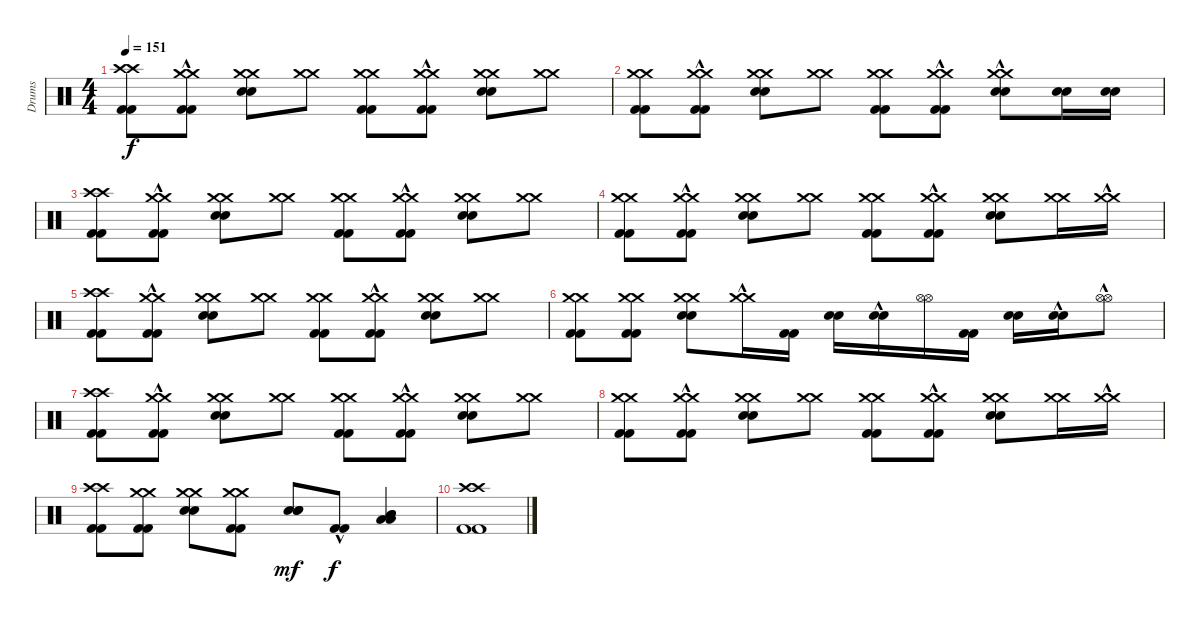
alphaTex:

\track ("Drums" "Drums") {instrument percussion}
\staff {score}
\articulation defaults
\ts (4 4)
\tempo 151
\clef neutral
\ks c
("Kick (hit) 2" "Kick (hit) 2" "Crash high (hit)" "Crash high (hit)").8{dy f} ("Kick (hit) 2"{hac} "Kick (hit) 2"{hac} "Crash medium (hit)" "Crash medium (hit)").8 ("Electric Snare (hit)" "Electric Snare (hit)" "Crash medium (hit)" "Crash medium (hit)").8 ("Crash medium (hit)" "Crash medium (hit)").8 ("Kick (hit) 2" "Kick (hit) 2" "Crash medium (hit)" "Crash medium (hit)").8 ("Kick (hit) 2"{hac} "Kick (hit) 2"{hac} "Crash medium (hit)" "Crash medium (hit)").8 ("Electric Snare (hit)" "Electric Snare (hit)" "Crash medium (hit)" "Crash medium (hit)").8 ("Crash medium (hit)" "Crash medium (hit)").8 |
("Kick (hit) 2" "Kick (hit) 2" "Crash medium (hit)" "Crash medium (hit)").8 ("Kick (hit) 2"{hac} "Kick (hit) 2"{hac} "Crash medium (hit)" "Crash medium (hit)").8 ("Electric Snare (hit)" "Electric Snare (hit)" "Crash medium (hit)" "Crash medium (hit)").8 ("Crash medium (hit)" "Crash medium (hit)").8 ("Kick (hit) 2" "Kick (hit) 2" "Crash medium (hit)" "Crash medium (hit)").8 ("Kick (hit) 2"{hac} "Kick (hit) 2"{hac} "Crash medium (hit)" "Crash medium (hit)").8 ("Electric Snare (hit)" "Electric Snare (hit)" "Crash medium (hit)"{hac} "Crash medium (hit)"{hac}).8 ("Electric Snare (hit)" "Electric Snare (hit)").16 ("Electric Snare (hit)" "Electric Snare (hit)").16 |
("Kick (hit) 2" "Kick (hit) 2" "Crash high (hit)" "Crash high (hit)").8 ("Kick (hit) 2"{hac} "Kick (hit) 2"{hac} "Crash medium (hit)" "Crash medium (hit)").8 ("Electric Snare (hit)" "Electric Snare (hit)" "Crash medium (hit)" "Crash medium (hit)").8 ("Crash medium (hit)" "Crash medium (hit)").8 ("Kick (hit) 2" "Kick (hit) 2" "Crash medium (hit)" "Crash medium (hit)").8 ("Kick (hit) 2"{hac} "Kick (hit) 2"{hac} "Crash medium (hit)" "Crash medium (hit)").8 ("Electric Snare (hit)" "Electric Snare (hit)" "Crash medium (hit)" "Crash medium (hit)").8 ("Crash medium (hit)" "Crash medium (hit)").8 |
("Kick (hit) 2" "Kick (hit) 2" "Crash medium (hit)" "Crash medium (hit)").8 ("Kick (hit) 2"{hac} "Kick (hit) 2"{hac} "Crash medium (hit)" "Crash medium (hit)").8 ("Electric Snare (hit)" "Electric Snare (hit)" "Crash medium (hit)" "Crash medium (hit)").8 ("Crash medium (hit)" "Crash medium (hit)").8 ("Kick (hit) 2" "Kick (hit) 2" "Crash medium (hit)" "Crash medium (hit)").8 ("Kick (hit) 2"{hac} "Kick (hit) 2"{hac} "Crash medium (hit)" "Crash medium (hit)").8 ("Electric Snare (hit)" "Electric Snare (hit)" "Crash medium (hit)" "Crash medium (hit)").8 ("Crash medium (hit)" "Crash medium (hit)").16 ("Crash medium (hit)"{hac} "Crash medium (hit)"{hac}).16 |
("Kick (hit) 2" "Kick (hit) 2" "Crash high (hit)" "Crash high (hit)").8 ("Kick (hit) 2"{hac} "Kick (hit) 2"{hac} "Crash medium (hit)" "Crash medium (hit)").8 ("Electric Snare (hit)" "Electric Snare (hit)" "Crash medium (hit)" "Crash medium (hit)").8 ("Crash medium (hit)" "Crash medium (hit)").8 ("Kick (hit) 2" "Kick (hit) 2" "Crash medium (hit)" "Crash medium (hit)").8 ("Kick (hit) 2"{hac} "Kick (hit) 2"{hac} "Crash medium (hit)" "Crash medium (hit)").8 ("Electric Snare (hit)" "Electric Snare (hit)" "Crash medium (hit)" "Crash medium (hit)").8 ("Crash medium (hit)" "Crash medium (hit)").8 |
("Kick (hit) 2" "Kick (hit) 2" "Crash medium (hit)" "Crash medium (hit)").8 ("Kick (hit) 2" "Kick (hit) 2" "Crash medium (hit)" "Crash medium (hit)").8 ("Electric Snare (hit)" "Electric Snare (hit)" "Crash medium (hit)" "Crash medium (hit)").8 ("Crash medium (hit)"{hac} "Crash medium (hit)"{hac}).16 ("Kick (hit) 2" "Kick (hit) 2").16 ("Electric Snare (hit)" "Electric Snare (hit)").16 ("Electric Snare (hit)"{hac} "Electric Snare (hit)"{hac}).16 ("Hi-Hat (open)" "Hi-Hat (open)").16 ("Kick (hit) 2" "Kick (hit) 2").16 ("Electric Snare (hit)" "Electric Snare (hit)").16 ("Electric Snare (hit)"{hac} "Electric Snare (hit)"{hac}).16 ("Hi-Hat (open)"{hac} "Hi-Hat (open)"{hac}).8 |
("Kick (hit) 2" "Kick (hit) 2" "Crash high (hit)" "Crash high (hit)").8 ("Kick (hit) 2"{hac} "Kick (hit) 2"{hac} "Crash medium (hit)" "Crash medium (hit)").8 ("Electric Snare (hit)" "Electric Snare (hit)" "Crash medium (hit)" "Crash medium (hit)").8 ("Crash medium (hit)" "Crash medium (hit)").8 ("Kick (hit) 2" "Kick (hit) 2" "Crash medium (hit)" "Crash medium (hit)").8 ("Kick (hit) 2"{hac} "Kick (hit) 2"{hac} "Crash medium (hit)" "Crash medium (hit)").8 ("Electric Snare (hit)" "Electric Snare (hit)" "Crash medium (hit)" "Crash medium (hit)").8 ("Crash medium (hit)" "Crash medium (hit)").8 |
("Kick (hit) 2" "Kick (hit) 2" "Crash medium (hit)" "Crash medium (hit)").8 ("Kick (hit) 2"{hac} "Kick (hit) 2"{hac} "Crash medium (hit)" "Crash medium (hit)").8 ("Electric Snare (hit)" "Electric Snare (hit)" "Crash medium (hit)" "Crash medium (hit)").8 ("Crash medium (hit)" "Crash medium (hit)").8 ("Kick (hit) 2" "Kick (hit) 2" "Crash medium (hit)" "Crash medium (hit)").8 ("Kick (hit) 2"{hac} "Kick (hit) 2"{hac} "Crash medium (hit)" "Crash medium (hit)").8 ("Electric Snare (hit)" "Electric Snare (hit)" "Crash medium (hit)" "Crash medium (hit)").8 ("Crash medium (hit)" "Crash medium (hit)").16 ("Crash medium (hit)"{hac} "Crash medium (hit)"{hac}).16 |
("Kick (hit) 2" "Kick (hit) 2" "Crash high (hit)" "Crash high (hit)").8 ("Kick (hit) 2" "Kick (hit) 2" "Crash medium (hit)" "Crash medium (hit)").8 ("Electric Snare (hit)" "Electric Snare (hit)" "Crash medium (hit)" "Crash medium (hit)").8 ("Kick (hit) 2" "Kick (hit) 2" "Crash medium (hit)" "Crash medium (hit)").8 ("Electric Snare (hit)" "Electric Snare (hit)" "Electric Snare (hit)").8{dy mf} ("Kick (hit) 2"{hac} "Kick (hit) 2"{hac}).8{dy f} ("Mid Tom (hit)" "Mid Tom (hit)" "Low Tom (hit)" "Low Tom (hit)").4 |
("Kick (hit) 2" "Kick (hit) 2" "Crash high (hit)" "Crash high (hit)").1
